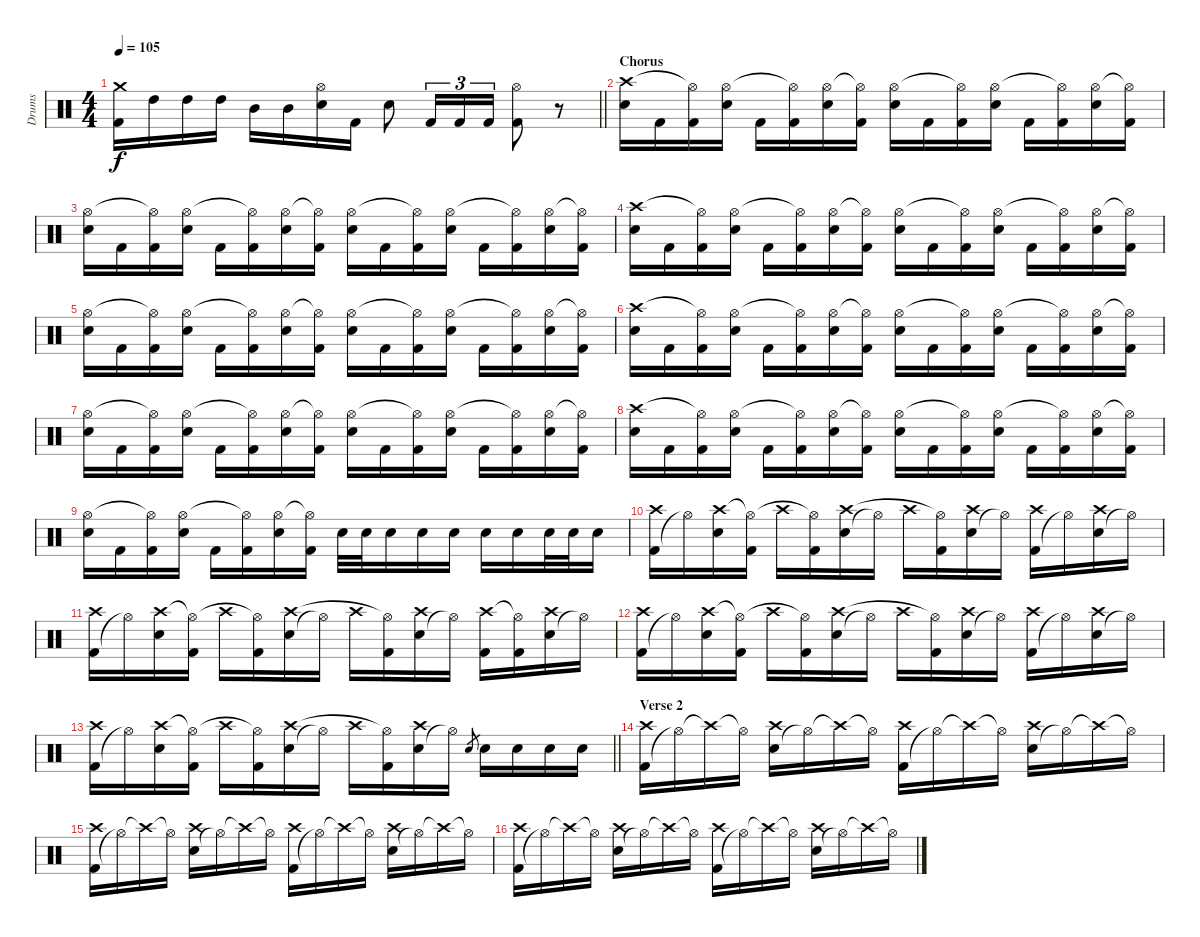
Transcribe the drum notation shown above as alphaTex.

\track ("Drums" "Drums") {instrument percussion}
\staff {score}
\articulation defaults
\ts (4 4)
\tempo 105
\clef neutral
\barLineRight lightlight
\ks c
("Kick (hit) 2" "Crash medium (hit)").16{dy f} "High Tom (hit)".16 "High Tom (hit)".16 "High Tom (hit)".16 "Mid Tom (hit)".16 "Mid Tom (hit)".16 ("Snare (hit) 2" "Hi-Hat (open)").16 "Kick (hit) 2".16 "Snare (hit) 2".8 "Kick (hit) 2".16{tu (3 2)} "Kick (hit) 2".16{tu (3 2)} "Kick (hit) 2".16{tu (3 2)} ("Hi-Hat (open)" "Kick (hit) 2").8 r.8 |
\section ("" "Chorus")
("Snare (hit) 2" "Crash high (hit)").16 "Kick (hit) 2".16 ("Kick (hit) 2" "Hi-Hat (open)"{t}).16 ("Snare (hit) 2" "Hi-Hat (open)").16 "Kick (hit) 2".16 ("Kick (hit) 2" "Hi-Hat (open)"{t}).16 ("Snare (hit) 2" "Hi-Hat (open)").16 ("Kick (hit) 2" "Hi-Hat (open)"{t}).16 ("Snare (hit) 2" "Hi-Hat (open)").16 "Kick (hit) 2".16 ("Kick (hit) 2" "Hi-Hat (open)"{t}).16 ("Snare (hit) 2" "Hi-Hat (open)").16 "Kick (hit) 2".16 ("Kick (hit) 2" "Hi-Hat (open)"{t}).16 ("Snare (hit) 2" "Hi-Hat (open)").16 ("Kick (hit) 2" "Hi-Hat (open)"{t}).16 |
("Snare (hit) 2" "Hi-Hat (open)").16 "Kick (hit) 2".16 ("Kick (hit) 2" "Hi-Hat (open)"{t}).16 ("Snare (hit) 2" "Hi-Hat (open)").16 "Kick (hit) 2".16 ("Kick (hit) 2" "Hi-Hat (open)"{t}).16 ("Snare (hit) 2" "Hi-Hat (open)").16 ("Kick (hit) 2" "Hi-Hat (open)"{t}).16 ("Snare (hit) 2" "Hi-Hat (open)").16 "Kick (hit) 2".16 ("Kick (hit) 2" "Hi-Hat (open)"{t}).16 ("Snare (hit) 2" "Hi-Hat (open)").16 "Kick (hit) 2".16 ("Kick (hit) 2" "Hi-Hat (open)"{t}).16 ("Snare (hit) 2" "Hi-Hat (open)").16 ("Kick (hit) 2" "Hi-Hat (open)"{t}).16 |
("Snare (hit) 2" "Crash high (hit)").16 "Kick (hit) 2".16 ("Kick (hit) 2" "Hi-Hat (open)"{t}).16 ("Snare (hit) 2" "Hi-Hat (open)").16 "Kick (hit) 2".16 ("Kick (hit) 2" "Hi-Hat (open)"{t}).16 ("Snare (hit) 2" "Hi-Hat (open)").16 ("Kick (hit) 2" "Hi-Hat (open)"{t}).16 ("Snare (hit) 2" "Hi-Hat (open)").16 "Kick (hit) 2".16 ("Kick (hit) 2" "Hi-Hat (open)"{t}).16 ("Snare (hit) 2" "Hi-Hat (open)").16 "Kick (hit) 2".16 ("Kick (hit) 2" "Hi-Hat (open)"{t}).16 ("Snare (hit) 2" "Hi-Hat (open)").16 ("Kick (hit) 2" "Hi-Hat (open)"{t}).16 |
("Snare (hit) 2" "Hi-Hat (open)").16 "Kick (hit) 2".16 ("Kick (hit) 2" "Hi-Hat (open)"{t}).16 ("Snare (hit) 2" "Hi-Hat (open)").16 "Kick (hit) 2".16 ("Kick (hit) 2" "Hi-Hat (open)"{t}).16 ("Snare (hit) 2" "Hi-Hat (open)").16 ("Kick (hit) 2" "Hi-Hat (open)"{t}).16 ("Snare (hit) 2" "Hi-Hat (open)").16 "Kick (hit) 2".16 ("Kick (hit) 2" "Hi-Hat (open)"{t}).16 ("Snare (hit) 2" "Hi-Hat (open)").16 "Kick (hit) 2".16 ("Kick (hit) 2" "Hi-Hat (open)"{t}).16 ("Snare (hit) 2" "Hi-Hat (open)").16 ("Kick (hit) 2" "Hi-Hat (open)"{t}).16 |
("Snare (hit) 2" "Crash high (hit)").16 "Kick (hit) 2".16 ("Kick (hit) 2" "Hi-Hat (open)"{t}).16 ("Snare (hit) 2" "Hi-Hat (open)").16 "Kick (hit) 2".16 ("Kick (hit) 2" "Hi-Hat (open)"{t}).16 ("Snare (hit) 2" "Hi-Hat (open)").16 ("Kick (hit) 2" "Hi-Hat (open)"{t}).16 ("Snare (hit) 2" "Hi-Hat (open)").16 "Kick (hit) 2".16 ("Kick (hit) 2" "Hi-Hat (open)"{t}).16 ("Snare (hit) 2" "Hi-Hat (open)").16 "Kick (hit) 2".16 ("Kick (hit) 2" "Hi-Hat (open)"{t}).16 ("Snare (hit) 2" "Hi-Hat (open)").16 ("Kick (hit) 2" "Hi-Hat (open)"{t}).16 |
("Snare (hit) 2" "Hi-Hat (open)").16 "Kick (hit) 2".16 ("Kick (hit) 2" "Hi-Hat (open)"{t}).16 ("Snare (hit) 2" "Hi-Hat (open)").16 "Kick (hit) 2".16 ("Kick (hit) 2" "Hi-Hat (open)"{t}).16 ("Snare (hit) 2" "Hi-Hat (open)").16 ("Kick (hit) 2" "Hi-Hat (open)"{t}).16 ("Snare (hit) 2" "Hi-Hat (open)").16 "Kick (hit) 2".16 ("Kick (hit) 2" "Hi-Hat (open)"{t}).16 ("Snare (hit) 2" "Hi-Hat (open)").16 "Kick (hit) 2".16 ("Kick (hit) 2" "Hi-Hat (open)"{t}).16 ("Snare (hit) 2" "Hi-Hat (open)").16 ("Kick (hit) 2" "Hi-Hat (open)"{t}).16 |
("Snare (hit) 2" "Crash high (hit)").16 "Kick (hit) 2".16 ("Kick (hit) 2" "Hi-Hat (open)"{t}).16 ("Snare (hit) 2" "Hi-Hat (open)").16 "Kick (hit) 2".16 ("Kick (hit) 2" "Hi-Hat (open)"{t}).16 ("Snare (hit) 2" "Hi-Hat (open)").16 ("Kick (hit) 2" "Hi-Hat (open)"{t}).16 ("Snare (hit) 2" "Hi-Hat (open)").16 "Kick (hit) 2".16 ("Kick (hit) 2" "Hi-Hat (open)"{t}).16 ("Snare (hit) 2" "Hi-Hat (open)").16 "Kick (hit) 2".16 ("Kick (hit) 2" "Hi-Hat (open)"{t}).16 ("Snare (hit) 2" "Hi-Hat (open)").16 ("Kick (hit) 2" "Hi-Hat (open)"{t}).16 |
("Snare (hit) 2" "Hi-Hat (open)").16 "Kick (hit) 2".16 ("Kick (hit) 2" "Hi-Hat (open)"{t}).16 ("Snare (hit) 2" "Hi-Hat (open)").16 "Kick (hit) 2".16 ("Kick (hit) 2" "Hi-Hat (open)"{t}).16 ("Snare (hit) 2" "Hi-Hat (open)").16 ("Kick (hit) 2" "Hi-Hat (open)"{t}).16 "Snare (hit) 2".32 "Snare (hit) 2".32 "Snare (hit) 2".16 "Snare (hit) 2".16 "Snare (hit) 2".16 "Snare (hit) 2".16 "Snare (hit) 2".16 "Snare (hit) 2".32 "Snare (hit) 2".32 "Snare (hit) 2".16 |
("Kick (hit) 2" "Crash high (hit)").16 "Hi-Hat (open)"{t}.16 ("Snare (hit) 2" "Crash high (hit)").16 ("Kick (hit) 2" "Hi-Hat (open)"{t}).16 "Crash high (hit)".16 ("Kick (hit) 2" "Hi-Hat (open)"{t}).16 ("Snare (hit) 2" "Crash high (hit)").16 "Hi-Hat (open)"{t}.16 "Crash high (hit)".16 ("Kick (hit) 2" "Hi-Hat (open)"{t}).16 ("Snare (hit) 2" "Crash high (hit)").16 "Hi-Hat (open)"{t}.16 ("Kick (hit) 2" "Crash high (hit)").16 "Hi-Hat (open)"{t}.16 ("Snare (hit) 2" "Crash high (hit)").16 "Hi-Hat (open)"{t}.16 |
("Kick (hit) 2" "Crash high (hit)").16 "Hi-Hat (open)"{t}.16 ("Snare (hit) 2" "Crash high (hit)").16 ("Kick (hit) 2" "Hi-Hat (open)"{t}).16 "Crash high (hit)".16 ("Kick (hit) 2" "Hi-Hat (open)"{t}).16 ("Snare (hit) 2" "Crash high (hit)").16 "Hi-Hat (open)"{t}.16 "Crash high (hit)".16 ("Kick (hit) 2" "Hi-Hat (open)"{t}).16 ("Snare (hit) 2" "Crash high (hit)").16 "Hi-Hat (open)"{t}.16 ("Kick (hit) 2" "Crash high (hit)").16 ("Kick (hit) 2" "Hi-Hat (open)"{t}).16 ("Snare (hit) 2" "Crash high (hit)").16 "Hi-Hat (open)"{t}.16 |
("Kick (hit) 2" "Crash high (hit)").16 "Hi-Hat (open)"{t}.16 ("Snare (hit) 2" "Crash high (hit)").16 ("Kick (hit) 2" "Hi-Hat (open)"{t}).16 "Crash high (hit)".16 ("Kick (hit) 2" "Hi-Hat (open)"{t}).16 ("Snare (hit) 2" "Crash high (hit)").16 "Hi-Hat (open)"{t}.16 "Crash high (hit)".16 ("Kick (hit) 2" "Hi-Hat (open)"{t}).16 ("Snare (hit) 2" "Crash high (hit)").16 "Hi-Hat (open)"{t}.16 ("Kick (hit) 2" "Crash high (hit)").16 "Hi-Hat (open)"{t}.16 ("Snare (hit) 2" "Crash high (hit)").16 "Hi-Hat (open)"{t}.16 |
\barLineRight lightlight
("Kick (hit) 2" "Crash high (hit)").16 "Hi-Hat (open)"{t}.16 ("Snare (hit) 2" "Crash high (hit)").16 ("Kick (hit) 2" "Hi-Hat (open)"{t}).16 "Crash high (hit)".16 ("Kick (hit) 2" "Hi-Hat (open)"{t}).16 ("Snare (hit) 2" "Crash high (hit)").16 "Hi-Hat (open)"{t}.16 "Crash high (hit)".16 ("Kick (hit) 2" "Hi-Hat (open)"{t}).16 ("Snare (hit) 2" "Crash high (hit)").16 "Hi-Hat (open)"{t}.16 "Snare (hit) 2".8{gr} "Snare (hit) 2".16 "Snare (hit) 2".16 "Snare (hit) 2".16 "Snare (hit) 2".16 |
\section ("" "Verse 2")
("Kick (hit) 2" "Crash high (hit)").16 "Hi-Hat (open)"{t}.16 "Crash high (hit)"{t}.16 "Hi-Hat (open)"{t}.16 ("Snare (hit) 2" "Crash high (hit)").16 "Hi-Hat (open)"{t}.16 "Crash high (hit)"{t}.16 "Hi-Hat (open)"{t}.16 ("Kick (hit) 2" "Crash high (hit)").16 "Hi-Hat (open)"{t}.16 "Crash high (hit)"{t}.16 "Hi-Hat (open)"{t}.16 ("Snare (hit) 2" "Crash high (hit)").16 "Hi-Hat (open)"{t}.16 "Crash high (hit)"{t}.16 "Hi-Hat (open)"{t}.16 |
("Kick (hit) 2" "Crash high (hit)").16 "Hi-Hat (open)"{t}.16 "Crash high (hit)"{t}.16 "Hi-Hat (open)"{t}.16 ("Snare (hit) 2" "Crash high (hit)").16 "Hi-Hat (open)"{t}.16 "Crash high (hit)"{t}.16 "Hi-Hat (open)"{t}.16 ("Kick (hit) 2" "Crash high (hit)").16 "Hi-Hat (open)"{t}.16 "Crash high (hit)"{t}.16 "Hi-Hat (open)"{t}.16 ("Snare (hit) 2" "Crash high (hit)").16 "Hi-Hat (open)"{t}.16 "Crash high (hit)"{t}.16 "Hi-Hat (open)"{t}.16 |
("Kick (hit) 2" "Crash high (hit)").16 "Hi-Hat (open)"{t}.16 "Crash high (hit)"{t}.16 "Hi-Hat (open)"{t}.16 ("Snare (hit) 2" "Crash high (hit)").16 "Hi-Hat (open)"{t}.16 "Crash high (hit)"{t}.16 "Hi-Hat (open)"{t}.16 ("Kick (hit) 2" "Crash high (hit)").16 "Hi-Hat (open)"{t}.16 "Crash high (hit)"{t}.16 "Hi-Hat (open)"{t}.16 ("Snare (hit) 2" "Crash high (hit)").16 "Hi-Hat (open)"{t}.16 "Crash high (hit)"{t}.16 "Hi-Hat (open)"{t}.16
